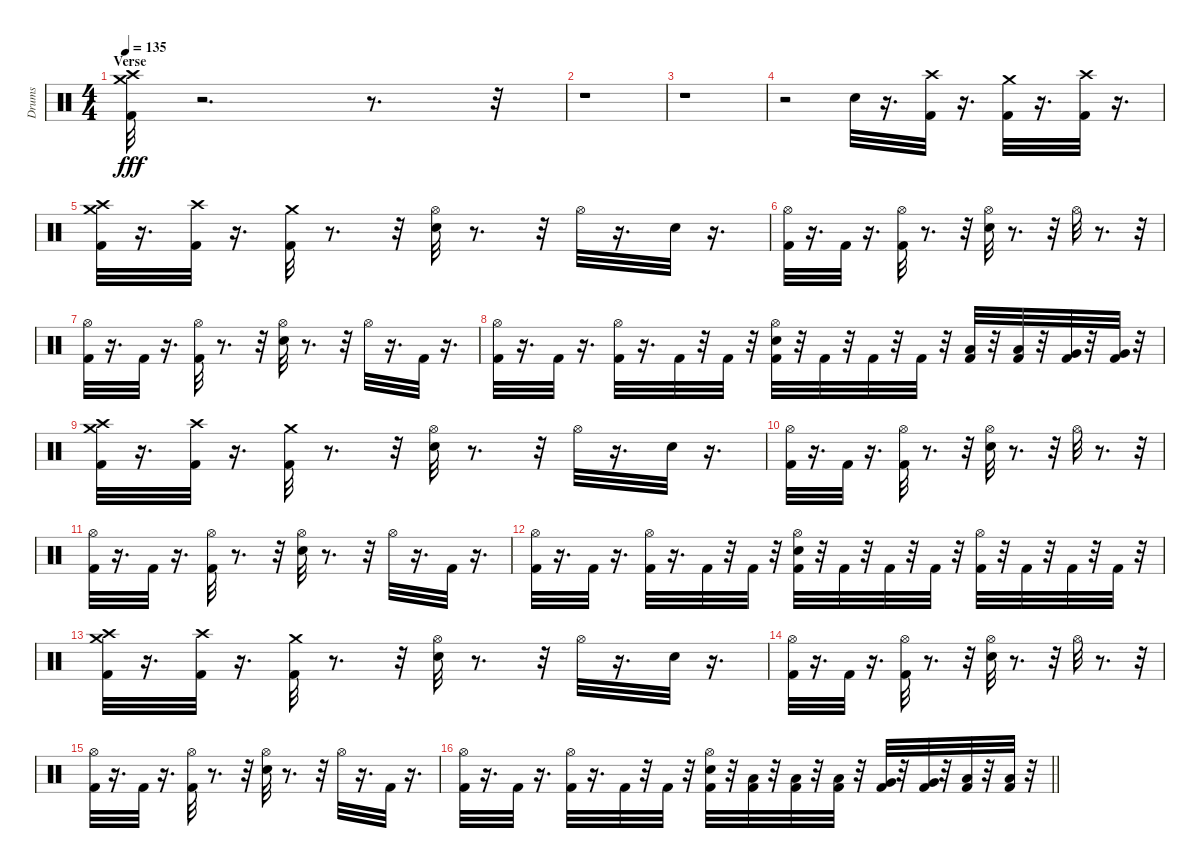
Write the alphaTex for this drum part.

\track ("Drums" "Drums") {instrument percussion}
\staff {score}
\articulation defaults
\ts (4 4)
\section ("" "Verse")
\tempo 135
\clef neutral
\ks c
("Crash medium (hit)" "Crash high (hit)" "Kick (hit) 2").32{dy fff} r.2{d} r.8{d} r.32 |
r.1 |
r.1 |
r.2 "Snare (hit) 2".32 r.16{d} ("Crash high (hit)" "Kick (hit) 2").32 r.16{d} ("Crash medium (hit)" "Kick (hit) 2").32 r.16{d} ("Crash high (hit)" "Kick (hit) 2").32 r.16{d} |
("Crash medium (hit)" "Crash high (hit)" "Kick (hit) 2").32 r.16{d} ("Crash high (hit)" "Kick (hit) 2").32 r.16{d} ("Crash medium (hit)" "Kick (hit) 2").32 r.8{d} r.32 ("Hi-Hat (open)" "Snare (hit) 2").32 r.8{d} r.32 "Hi-Hat (open)".32 r.16{d} "Snare (hit) 2".32 r.16{d} |
("Kick (hit) 2" "Hi-Hat (open)").32 r.16{d} "Kick (hit) 2".32 r.16{d} ("Kick (hit) 2" "Hi-Hat (open)").32 r.8{d} r.32 ("Snare (hit) 2" "Hi-Hat (open)").32 r.8{d} r.32 "Hi-Hat (open)".32 r.8{d} r.32 |
("Kick (hit) 2" "Hi-Hat (open)").32 r.16{d} "Kick (hit) 2".32 r.16{d} ("Kick (hit) 2" "Hi-Hat (open)").32 r.8{d} r.32 ("Snare (hit) 2" "Hi-Hat (open)").32 r.8{d} r.32 "Hi-Hat (open)".32 r.16{d} "Kick (hit) 2".32 r.16{d} |
("Kick (hit) 2" "Hi-Hat (open)").32 r.16{d} "Kick (hit) 2".32 r.16{d} ("Kick (hit) 2" "Hi-Hat (open)").32 r.16{d} "Kick (hit) 2".32 r.32 "Kick (hit) 2".32 r.32 ("Kick (hit) 2" "Snare (hit) 2" "Hi-Hat (open)").32 r.32 "Kick (hit) 2".32 r.32 "Kick (hit) 2".32 r.32 "Kick (hit) 2".32 r.32 ("Low Tom (hit)" "Kick (hit) 2").32 r.32 ("Low Tom (hit)" "Kick (hit) 2").32 r.32 ("Very Low Tom (hit)" "Kick (hit) 2").32 r.32 ("Very Low Tom (hit)" "Kick (hit) 2").32 r.32 |
("Crash medium (hit)" "Crash high (hit)" "Kick (hit) 2").32 r.16{d} ("Crash high (hit)" "Kick (hit) 2").32 r.16{d} ("Crash medium (hit)" "Kick (hit) 2").32 r.8{d} r.32 ("Hi-Hat (open)" "Snare (hit) 2").32 r.8{d} r.32 "Hi-Hat (open)".32 r.16{d} "Snare (hit) 2".32 r.16{d} |
("Kick (hit) 2" "Hi-Hat (open)").32 r.16{d} "Kick (hit) 2".32 r.16{d} ("Kick (hit) 2" "Hi-Hat (open)").32 r.8{d} r.32 ("Snare (hit) 2" "Hi-Hat (open)").32 r.8{d} r.32 "Hi-Hat (open)".32 r.8{d} r.32 |
("Kick (hit) 2" "Hi-Hat (open)").32 r.16{d} "Kick (hit) 2".32 r.16{d} ("Kick (hit) 2" "Hi-Hat (open)").32 r.8{d} r.32 ("Snare (hit) 2" "Hi-Hat (open)").32 r.8{d} r.32 "Hi-Hat (open)".32 r.16{d} "Kick (hit) 2".32 r.16{d} |
("Kick (hit) 2" "Hi-Hat (open)").32 r.16{d} "Kick (hit) 2".32 r.16{d} ("Kick (hit) 2" "Hi-Hat (open)").32 r.16{d} "Kick (hit) 2".32 r.32 "Kick (hit) 2".32 r.32 ("Kick (hit) 2" "Snare (hit) 2" "Hi-Hat (open)").32 r.32 "Kick (hit) 2".32 r.32 "Kick (hit) 2".32 r.32 "Kick (hit) 2".32 r.32 ("Kick (hit) 2" "Hi-Hat (open)").32 r.32 "Kick (hit) 2".32 r.32 "Kick (hit) 2".32 r.32 "Kick (hit) 2".32 r.32 |
("Crash medium (hit)" "Crash high (hit)" "Kick (hit) 2").32 r.16{d} ("Crash high (hit)" "Kick (hit) 2").32 r.16{d} ("Crash medium (hit)" "Kick (hit) 2").32 r.8{d} r.32 ("Hi-Hat (open)" "Snare (hit) 2").32 r.8{d} r.32 "Hi-Hat (open)".32 r.16{d} "Snare (hit) 2".32 r.16{d} |
("Kick (hit) 2" "Hi-Hat (open)").32 r.16{d} "Kick (hit) 2".32 r.16{d} ("Kick (hit) 2" "Hi-Hat (open)").32 r.8{d} r.32 ("Snare (hit) 2" "Hi-Hat (open)").32 r.8{d} r.32 "Hi-Hat (open)".32 r.8{d} r.32 |
("Kick (hit) 2" "Hi-Hat (open)").32 r.16{d} "Kick (hit) 2".32 r.16{d} ("Kick (hit) 2" "Hi-Hat (open)").32 r.8{d} r.32 ("Snare (hit) 2" "Hi-Hat (open)").32 r.8{d} r.32 "Hi-Hat (open)".32 r.16{d} "Kick (hit) 2".32 r.16{d} |
\barLineRight lightlight
("Kick (hit) 2" "Hi-Hat (open)").32 r.16{d} "Kick (hit) 2".32 r.16{d} ("Kick (hit) 2" "Hi-Hat (open)").32 r.16{d} "Kick (hit) 2".32 r.32 "Kick (hit) 2".32 r.32 ("Kick (hit) 2" "Snare (hit) 2" "Hi-Hat (open)").32 r.32 ("Low Tom (hit)" "Kick (hit) 2").32 r.32 ("Low Tom (hit)" "Kick (hit) 2").32 r.32 ("Low Tom (hit)" "Kick (hit) 2").32 r.32 ("Very Low Tom (hit)" "Kick (hit) 2").32 r.32 ("Very Low Tom (hit)" "Kick (hit) 2").32 r.32 ("Low Floor Tom (hit)" "Kick (hit) 2").32 r.32 ("Low Floor Tom (hit)" "Kick (hit) 2").32 r.32
